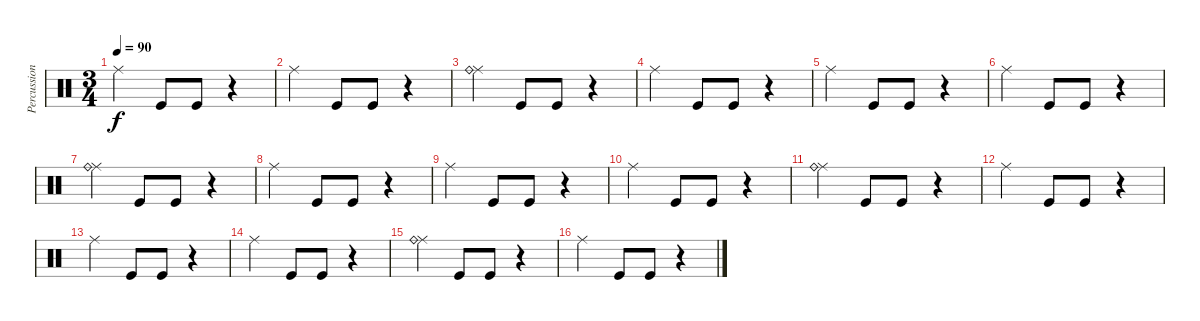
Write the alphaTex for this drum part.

\track ("Percussion" "Percussion") {instrument percussion}
\staff {score}
\articulation defaults
\ts (3 4)
\tempo 90
\clef neutral
\ks c "Ride (middle)".4{dy f} "Kick (hit)".8 "Kick (hit)".8
r.4 |
"Ride (middle)".4 "Kick (hit)".8 "Kick (hit)".8 r.4 |
("Ride (middle)" "Ride (bell)").4 "Kick (hit)".8 "Kick (hit)".8 r.4 |
"Ride (middle)".4 "Kick (hit)".8 "Kick (hit)".8 r.4 |
"Ride (middle)".4 "Kick (hit)".8 "Kick (hit)".8 r.4 |
"Ride (middle)".4 "Kick (hit)".8 "Kick (hit)".8 r.4 |
("Ride (middle)" "Ride (bell)").4 "Kick (hit)".8 "Kick (hit)".8 r.4 |
"Ride (middle)".4 "Kick (hit)".8 "Kick (hit)".8 r.4 |
"Ride (middle)".4 "Kick (hit)".8 "Kick (hit)".8 r.4 |
"Ride (middle)".4 "Kick (hit)".8 "Kick (hit)".8 r.4 |
("Ride (middle)" "Ride (bell)").4 "Kick (hit)".8 "Kick (hit)".8 r.4 |
"Ride (middle)".4 "Kick (hit)".8 "Kick (hit)".8 r.4 |
"Ride (middle)".4 "Kick (hit)".8 "Kick (hit)".8 r.4 |
"Ride (middle)".4 "Kick (hit)".8 "Kick (hit)".8 r.4 |
("Ride (middle)" "Ride (bell)").4 "Kick (hit)".8 "Kick (hit)".8 r.4 |
"Ride (middle)".4 "Kick (hit)".8 "Kick (hit)".8 r.4
